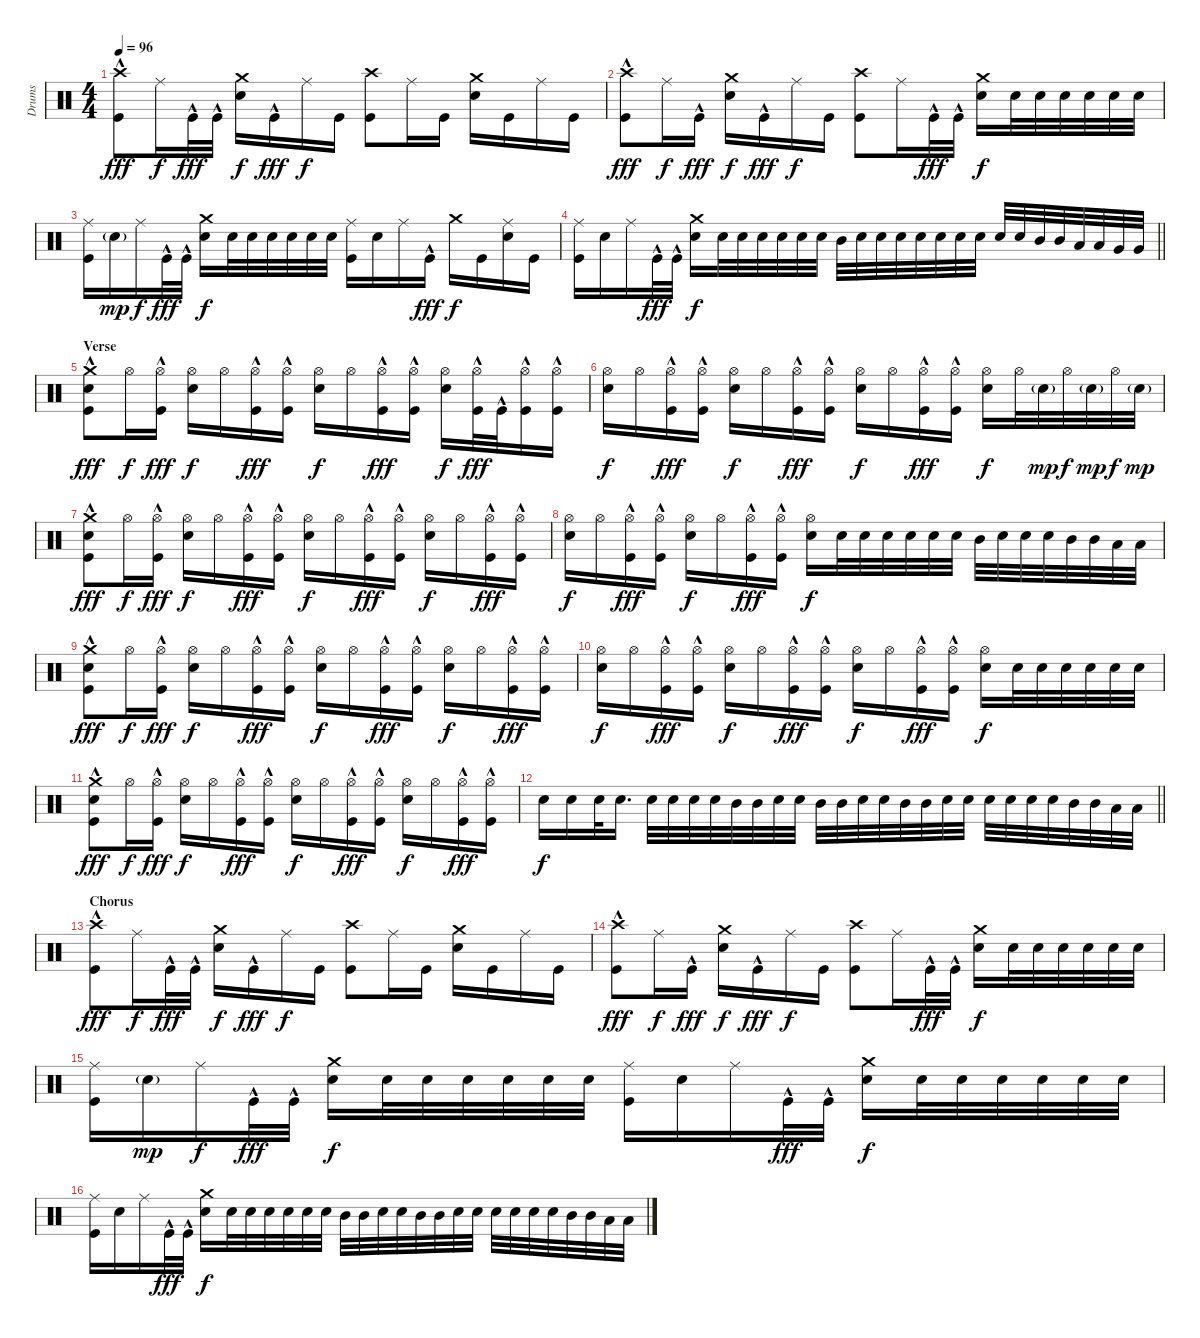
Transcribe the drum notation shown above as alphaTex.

\track ("Drums" "Drums") {instrument percussion}
\staff {score}
\articulation defaults
\ts (4 4)
\tempo 96
\clef neutral
\ks c
("Crash high (hit)" "Kick (hit)"{hac}).8{dy fff} "Ride (middle)".16{dy f} "Kick (hit)"{hac}.32{dy fff} "Kick (hit)"{hac}.32 ("Crash medium (hit)" "Electric Snare (hit)").16{dy f} "Kick (hit)"{hac}.16{dy fff} "Ride (middle)".16{dy f} "Kick (hit)".16 ("Crash high (hit)" "Kick (hit)").8 "Ride (middle)".16 "Kick (hit)".16 ("Crash medium (hit)" "Electric Snare (hit)").16 "Kick (hit)".16 "Ride (middle)".16 "Kick (hit)".16 |
("Crash high (hit)" "Kick (hit)"{hac}).8{dy fff} "Ride (middle)".16{dy f} "Kick (hit)"{hac}.16{dy fff} ("Crash medium (hit)" "Electric Snare (hit)").16{dy f} "Kick (hit)"{hac}.16{dy fff} "Ride (middle)".16{dy f} "Kick (hit)".16 ("Crash high (hit)" "Kick (hit)").8 "Ride (middle)".16 "Kick (hit)"{hac}.32{dy fff} "Kick (hit)"{hac}.32 ("Crash medium (hit)" "Electric Snare (hit)").16{dy f} "Electric Snare (hit)".32 "Electric Snare (hit)".32 "Electric Snare (hit)".32 "Electric Snare (hit)".32 "Electric Snare (hit)".32 "Electric Snare (hit)".32 |
("Ride (middle)" "Kick (hit)").16 "Electric Snare (hit)"{g}.16{dy mp} "Ride (middle)".16{dy f} "Kick (hit)"{hac}.32{dy fff} "Kick (hit)"{hac}.32 ("Crash medium (hit)" "Electric Snare (hit)").16{dy f} "Electric Snare (hit)".32 "Electric Snare (hit)".32 "Electric Snare (hit)".32 "Electric Snare (hit)".32 "Electric Snare (hit)".32 "Electric Snare (hit)".32 ("Ride (middle)" "Kick (hit)").16 "Electric Snare (hit)".16 "Ride (middle)".16 "Kick (hit)"{hac}.16{dy fff} "Crash medium (hit)".16{dy f} "Kick (hit)".16 ("Ride (middle)" "Electric Snare (hit)").16 "Kick (hit)".16 |
\barLineRight lightlight
("Ride (middle)" "Kick (hit)").16 "Electric Snare (hit)".16 "Ride (middle)".16 "Kick (hit)"{hac}.32{dy fff} "Kick (hit)"{hac}.32 ("Crash medium (hit)" "Electric Snare (hit)").16{dy f} "Electric Snare (hit)".32 "Electric Snare (hit)".32 "Electric Snare (hit)".32 "Electric Snare (hit)".32 "Electric Snare (hit)".32 "Electric Snare (hit)".32 "Mid Tom (hit)".32 "Electric Snare (hit)".32 "Electric Snare (hit)".32 "Electric Snare (hit)".32 "Electric Snare (hit)".32 "Electric Snare (hit)".32 "Electric Snare (hit)".32 "Electric Snare (hit)".32 "Electric Snare (hit)".32 "Electric Snare (hit)".32 "Mid Tom (hit)".32 "Mid Tom (hit)".32 "Low Tom (hit)".32 "Low Tom (hit)".32 "Very Low Tom (hit)".32 "Very Low Tom (hit)".32 |
\section ("" "Verse")
("Crash medium (hit)" "Electric Snare (hit)" "Kick (hit)"{hac}).8{dy fff} "Hi-Hat (open)".16{dy f} ("Hi-Hat (open)" "Kick (hit)"{hac}).16{dy fff} ("Hi-Hat (open)" "Electric Snare (hit)").16{dy f} "Hi-Hat (open)".16 ("Hi-Hat (open)" "Kick (hit)"{hac}).16{dy fff} ("Hi-Hat (open)" "Kick (hit)"{hac}).16 ("Hi-Hat (open)" "Electric Snare (hit)").16{dy f} "Hi-Hat (open)".16 ("Hi-Hat (open)" "Kick (hit)"{hac}).16{dy fff} ("Hi-Hat (open)" "Kick (hit)"{hac}).16 ("Hi-Hat (open)" "Electric Snare (hit)").16{dy f} ("Hi-Hat (open)" "Kick (hit)"{hac}).32{dy fff} "Kick (hit)"{hac}.32 ("Hi-Hat (open)" "Kick (hit)"{hac}).16 ("Hi-Hat (open)" "Kick (hit)"{hac}).16 |
("Hi-Hat (open)" "Electric Snare (hit)").16{dy f} "Hi-Hat (open)".16 ("Hi-Hat (open)" "Kick (hit)"{hac}).16{dy fff} ("Hi-Hat (open)" "Kick (hit)"{hac}).16 ("Hi-Hat (open)" "Electric Snare (hit)").16{dy f} "Hi-Hat (open)".16 ("Hi-Hat (open)" "Kick (hit)"{hac}).16{dy fff} ("Hi-Hat (open)" "Kick (hit)"{hac}).16 ("Hi-Hat (open)" "Electric Snare (hit)").16{dy f} "Hi-Hat (open)".16 ("Hi-Hat (open)" "Kick (hit)"{hac}).16{dy fff} ("Hi-Hat (open)" "Kick (hit)"{hac}).16 ("Hi-Hat (open)" "Electric Snare (hit)").16{dy f} "Hi-Hat (open)".32 "Electric Snare (hit)"{g}.32{dy mp} "Hi-Hat (open)".32{dy f} "Electric Snare (hit)"{g}.32{dy mp} "Hi-Hat (open)".32{dy f} "Electric Snare (hit)"{g}.32{dy mp} |
("Crash medium (hit)" "Electric Snare (hit)" "Kick (hit)"{hac}).8{dy fff} "Hi-Hat (open)".16{dy f} ("Hi-Hat (open)" "Kick (hit)"{hac}).16{dy fff} ("Hi-Hat (open)" "Electric Snare (hit)").16{dy f} "Hi-Hat (open)".16 ("Hi-Hat (open)" "Kick (hit)"{hac}).16{dy fff} ("Hi-Hat (open)" "Kick (hit)"{hac}).16 ("Hi-Hat (open)" "Electric Snare (hit)").16{dy f} "Hi-Hat (open)".16 ("Hi-Hat (open)" "Kick (hit)"{hac}).16{dy fff} ("Hi-Hat (open)" "Kick (hit)"{hac}).16 ("Hi-Hat (open)" "Electric Snare (hit)").16{dy f} "Hi-Hat (open)".16 ("Hi-Hat (open)" "Kick (hit)"{hac}).16{dy fff} ("Hi-Hat (open)" "Kick (hit)"{hac}).16 |
("Hi-Hat (open)" "Electric Snare (hit)").16{dy f} "Hi-Hat (open)".16 ("Hi-Hat (open)" "Kick (hit)"{hac}).16{dy fff} ("Hi-Hat (open)" "Kick (hit)"{hac}).16 ("Hi-Hat (open)" "Electric Snare (hit)").16{dy f} "Hi-Hat (open)".16 ("Hi-Hat (open)" "Kick (hit)"{hac}).16{dy fff} ("Hi-Hat (open)" "Kick (hit)"{hac}).16 ("Hi-Hat (open)" "Electric Snare (hit)").16{dy f} "Electric Snare (hit)".32 "Electric Snare (hit)".32 "Electric Snare (hit)".32 "Electric Snare (hit)".32 "Electric Snare (hit)".32 "Electric Snare (hit)".32 "Mid Tom (hit)".32 "Electric Snare (hit)".32 "Electric Snare (hit)".32 "Electric Snare (hit)".32 "Mid Tom (hit)".32 "Mid Tom (hit)".32 "Low Tom (hit)".32 "Low Tom (hit)".32 |
("Crash medium (hit)" "Electric Snare (hit)" "Kick (hit)"{hac}).8{dy fff} "Hi-Hat (open)".16{dy f} ("Hi-Hat (open)" "Kick (hit)"{hac}).16{dy fff} ("Hi-Hat (open)" "Electric Snare (hit)").16{dy f} "Hi-Hat (open)".16 ("Hi-Hat (open)" "Kick (hit)"{hac}).16{dy fff} ("Hi-Hat (open)" "Kick (hit)"{hac}).16 ("Hi-Hat (open)" "Electric Snare (hit)").16{dy f} "Hi-Hat (open)".16 ("Hi-Hat (open)" "Kick (hit)"{hac}).16{dy fff} ("Hi-Hat (open)" "Kick (hit)"{hac}).16 ("Hi-Hat (open)" "Electric Snare (hit)").16{dy f} "Hi-Hat (open)".16 ("Hi-Hat (open)" "Kick (hit)"{hac}).16{dy fff} ("Hi-Hat (open)" "Kick (hit)"{hac}).16 |
("Hi-Hat (open)" "Electric Snare (hit)").16{dy f} "Hi-Hat (open)".16 ("Hi-Hat (open)" "Kick (hit)"{hac}).16{dy fff} ("Hi-Hat (open)" "Kick (hit)"{hac}).16 ("Hi-Hat (open)" "Electric Snare (hit)").16{dy f} "Hi-Hat (open)".16 ("Hi-Hat (open)" "Kick (hit)"{hac}).16{dy fff} ("Hi-Hat (open)" "Kick (hit)"{hac}).16 ("Hi-Hat (open)" "Electric Snare (hit)").16{dy f} "Hi-Hat (open)".16 ("Hi-Hat (open)" "Kick (hit)"{hac}).16{dy fff} ("Hi-Hat (open)" "Kick (hit)"{hac}).16 ("Hi-Hat (open)" "Electric Snare (hit)").16{dy f} "Electric Snare (hit)".32 "Electric Snare (hit)".32 "Electric Snare (hit)".32 "Electric Snare (hit)".32 "Electric Snare (hit)".32 "Electric Snare (hit)".32 |
("Crash medium (hit)" "Electric Snare (hit)" "Kick (hit)"{hac}).8{dy fff} "Hi-Hat (open)".16{dy f} ("Hi-Hat (open)" "Kick (hit)"{hac}).16{dy fff} ("Hi-Hat (open)" "Electric Snare (hit)").16{dy f} "Hi-Hat (open)".16 ("Hi-Hat (open)" "Kick (hit)"{hac}).16{dy fff} ("Hi-Hat (open)" "Kick (hit)"{hac}).16 ("Hi-Hat (open)" "Electric Snare (hit)").16{dy f} "Hi-Hat (open)".16 ("Hi-Hat (open)" "Kick (hit)"{hac}).16{dy fff} ("Hi-Hat (open)" "Kick (hit)"{hac}).16 ("Hi-Hat (open)" "Electric Snare (hit)").16{dy f} "Hi-Hat (open)".16 ("Hi-Hat (open)" "Kick (hit)"{hac}).16{dy fff} ("Hi-Hat (open)" "Kick (hit)"{hac}).16 |
\barLineRight lightlight "Electric Snare (hit)".16{dy f} "Electric Snare (hit)".16 "Electric Snare (hit)".32 "Electric Snare (hit)".16{d} "Electric Snare (hit)".32 "Electric Snare (hit)".32 "Electric Snare (hit)".32 "Electric Snare (hit)".32 "Mid Tom (hit)".32 "Mid Tom (hit)".32 "Electric Snare (hit)".32 "Electric Snare (hit)".32 "Mid Tom (hit)".32 "Mid Tom (hit)".32 "Electric Snare (hit)".32 "Electric Snare (hit)".32 "Mid Tom (hit)".32 "Mid Tom (hit)".32 "Electric Snare (hit)".32 "Electric Snare (hit)".32 "Electric Snare (hit)".32 "Electric Snare (hit)".32 "Electric Snare (hit)".32 "Electric Snare (hit)".32 "Mid Tom (hit)".32 "Mid Tom (hit)".32 "Low Tom (hit)".32 "Low Tom (hit)".32
|
\section ("" "Chorus")
("Crash high (hit)" "Kick (hit)"{hac}).8{dy fff} "Ride (middle)".16{dy f} "Kick (hit)"{hac}.32{dy fff} "Kick (hit)"{hac}.32 ("Crash medium (hit)" "Electric Snare (hit)").16{dy f} "Kick (hit)"{hac}.16{dy fff} "Ride (middle)".16{dy f} "Kick (hit)".16 ("Crash high (hit)" "Kick (hit)").8 "Ride (middle)".16 "Kick (hit)".16 ("Crash medium (hit)" "Electric Snare (hit)").16 "Kick (hit)".16 "Ride (middle)".16 "Kick (hit)".16 |
("Crash high (hit)" "Kick (hit)"{hac}).8{dy fff} "Ride (middle)".16{dy f} "Kick (hit)"{hac}.16{dy fff} ("Crash medium (hit)" "Electric Snare (hit)").16{dy f} "Kick (hit)"{hac}.16{dy fff} "Ride (middle)".16{dy f} "Kick (hit)".16 ("Crash high (hit)" "Kick (hit)").8 "Ride (middle)".16 "Kick (hit)"{hac}.32{dy fff} "Kick (hit)"{hac}.32 ("Crash medium (hit)" "Electric Snare (hit)").16{dy f} "Electric Snare (hit)".32 "Electric Snare (hit)".32 "Electric Snare (hit)".32 "Electric Snare (hit)".32 "Electric Snare (hit)".32 "Electric Snare (hit)".32 |
("Ride (middle)" "Kick (hit)").16 "Electric Snare (hit)"{g}.16{dy mp} "Ride (middle)".16{dy f} "Kick (hit)"{hac}.32{dy fff} "Kick (hit)"{hac}.32 ("Crash medium (hit)" "Electric Snare (hit)").16{dy f} "Electric Snare (hit)".32 "Electric Snare (hit)".32 "Electric Snare (hit)".32 "Electric Snare (hit)".32 "Electric Snare (hit)".32 "Electric Snare (hit)".32 ("Ride (middle)" "Kick (hit)").16 "Electric Snare (hit)".16 "Ride (middle)".16 "Kick (hit)"{hac}.32{dy fff} "Kick (hit)"{hac}.32 ("Crash medium (hit)" "Electric Snare (hit)").16{dy f} "Electric Snare (hit)".32 "Electric Snare (hit)".32 "Electric Snare (hit)".32 "Electric Snare (hit)".32 "Electric Snare (hit)".32 "Electric Snare (hit)".32 |
("Ride (middle)" "Kick (hit)").16 "Electric Snare (hit)".16 "Ride (middle)".16 "Kick (hit)"{hac}.32{dy fff} "Kick (hit)"{hac}.32 ("Crash medium (hit)" "Electric Snare (hit)").16{dy f} "Electric Snare (hit)".32 "Electric Snare (hit)".32 "Electric Snare (hit)".32 "Electric Snare (hit)".32 "Electric Snare (hit)".32 "Electric Snare (hit)".32 "Mid Tom (hit)".32 "Mid Tom (hit)".32 "Electric Snare (hit)".32 "Electric Snare (hit)".32 "Mid Tom (hit)".32 "Mid Tom (hit)".32 "Electric Snare (hit)".32 "Electric Snare (hit)".32 "Electric Snare (hit)".32 "Electric Snare (hit)".32 "Electric Snare (hit)".32 "Electric Snare (hit)".32 "Mid Tom (hit)".32 "Mid Tom (hit)".32 "Low Tom (hit)".32 "Low Tom (hit)".32
